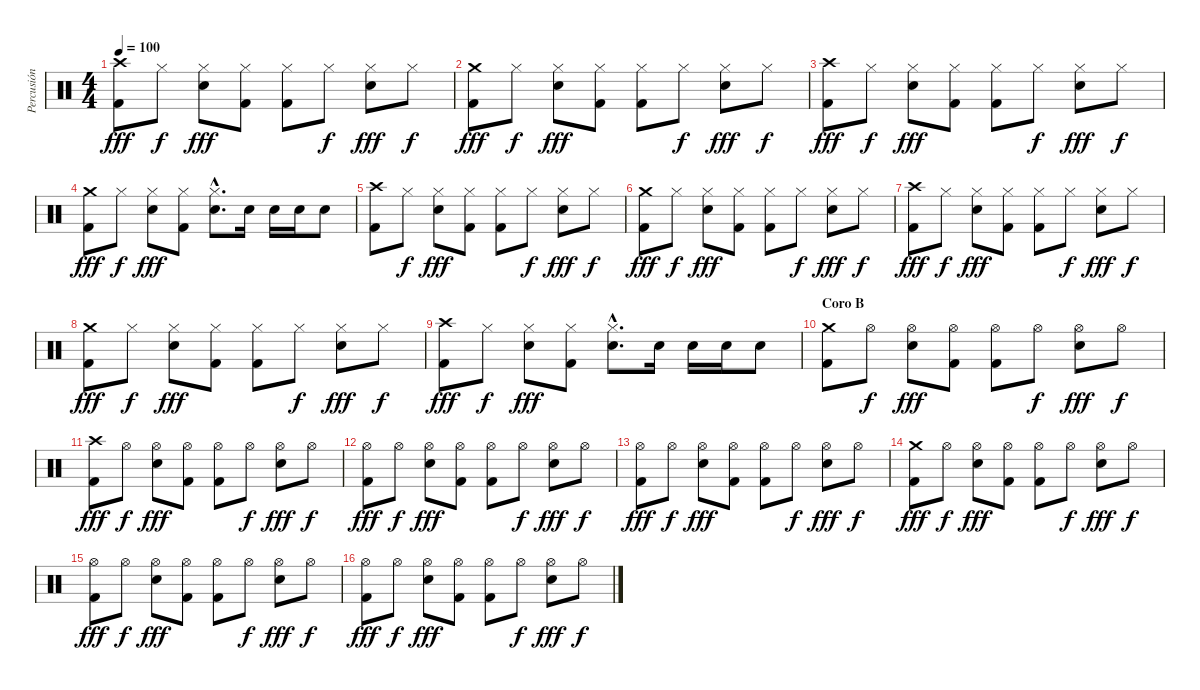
\track ("Percusión" "Percusión") {instrument percussion}
\staff {score}
\articulation defaults
\ts (4 4)
\tempo 100
\clef neutral
\ks c
("Crash high (hit)" "Kick (hit) 2").8{dy fff} "Hi-Hat (closed)".8{dy f} ("Hi-Hat (closed)" "Snare (hit) 2").8{dy fff} ("Hi-Hat (closed)" "Kick (hit) 2").8 ("Hi-Hat (closed)" "Kick (hit) 2").8 "Hi-Hat (closed)".8{dy f} ("Hi-Hat (closed)" "Snare (hit) 2").8{dy fff} "Hi-Hat (closed)".8{dy f} |
("Crash medium (hit)" "Kick (hit) 2").8{dy fff} "Hi-Hat (closed)".8{dy f} ("Hi-Hat (closed)" "Snare (hit) 2").8{dy fff} ("Hi-Hat (closed)" "Kick (hit) 2").8 ("Hi-Hat (closed)" "Kick (hit) 2").8 "Hi-Hat (closed)".8{dy f} ("Hi-Hat (closed)" "Snare (hit) 2").8{dy fff} "Hi-Hat (closed)".8{dy f} |
("Crash high (hit)" "Kick (hit) 2").8{dy fff} "Hi-Hat (closed)".8{dy f} ("Hi-Hat (closed)" "Snare (hit) 2").8{dy fff} ("Hi-Hat (closed)" "Kick (hit) 2").8 ("Hi-Hat (closed)" "Kick (hit) 2").8 "Hi-Hat (closed)".8{dy f} ("Hi-Hat (closed)" "Snare (hit) 2").8{dy fff} "Hi-Hat (closed)".8{dy f} |
("Crash medium (hit)" "Kick (hit) 2").8{dy fff} "Hi-Hat (closed)".8{dy f} ("Hi-Hat (closed)" "Snare (hit) 2").8{dy fff} ("Hi-Hat (closed)" "Kick (hit) 2").8 ("Hi-Hat (closed)"{hac} "Snare (hit) 2"{hac}).8{d} "Snare (hit) 2".16 "Snare (hit) 2".16 "Snare (hit) 2".16 "Snare (hit) 2".8 |
("Crash high (hit)" "Kick (hit) 2").8 "Hi-Hat (closed)".8{dy f} ("Hi-Hat (closed)" "Snare (hit) 2").8{dy fff} ("Hi-Hat (closed)" "Kick (hit) 2").8 ("Hi-Hat (closed)" "Kick (hit) 2").8 "Hi-Hat (closed)".8{dy f} ("Hi-Hat (closed)" "Snare (hit) 2").8{dy fff} "Hi-Hat (closed)".8{dy f} |
("Crash medium (hit)" "Kick (hit) 2").8{dy fff} "Hi-Hat (closed)".8{dy f} ("Hi-Hat (closed)" "Snare (hit) 2").8{dy fff} ("Hi-Hat (closed)" "Kick (hit) 2").8 ("Hi-Hat (closed)" "Kick (hit) 2").8 "Hi-Hat (closed)".8{dy f} ("Hi-Hat (closed)" "Snare (hit) 2").8{dy fff} "Hi-Hat (closed)".8{dy f} |
("Crash high (hit)" "Kick (hit) 2").8{dy fff} "Hi-Hat (closed)".8{dy f} ("Hi-Hat (closed)" "Snare (hit) 2").8{dy fff} ("Hi-Hat (closed)" "Kick (hit) 2").8 ("Hi-Hat (closed)" "Kick (hit) 2").8 "Hi-Hat (closed)".8{dy f} ("Hi-Hat (closed)" "Snare (hit) 2").8{dy fff} "Hi-Hat (closed)".8{dy f} |
("Crash medium (hit)" "Kick (hit) 2").8{dy fff} "Hi-Hat (closed)".8{dy f} ("Hi-Hat (closed)" "Snare (hit) 2").8{dy fff} ("Hi-Hat (closed)" "Kick (hit) 2").8 ("Hi-Hat (closed)" "Kick (hit) 2").8 "Hi-Hat (closed)".8{dy f} ("Hi-Hat (closed)" "Snare (hit) 2").8{dy fff} "Hi-Hat (closed)".8{dy f} |
("Crash high (hit)" "Kick (hit) 2").8{dy fff} "Hi-Hat (closed)".8{dy f} ("Hi-Hat (closed)" "Snare (hit) 2").8{dy fff} ("Hi-Hat (closed)" "Kick (hit) 2").8 ("Hi-Hat (closed)"{hac} "Snare (hit) 2"{hac}).8{d} "Snare (hit) 2".16 "Snare (hit) 2".16 "Snare (hit) 2".16 "Snare (hit) 2".8 |
\section ("" "Coro B")
("Crash medium (hit)" "Kick (hit) 2").8 "Hi-Hat (open)".8{dy f} ("Hi-Hat (open)" "Snare (hit) 2").8{dy fff} ("Hi-Hat (open)" "Kick (hit) 2").8 ("Hi-Hat (open)" "Kick (hit) 2").8 "Hi-Hat (open)".8{dy f} ("Hi-Hat (open)" "Snare (hit) 2").8{dy fff} "Hi-Hat (open)".8{dy f} |
("Crash high (hit)" "Kick (hit) 2").8{dy fff} "Hi-Hat (open)".8{dy f} ("Hi-Hat (open)" "Snare (hit) 2").8{dy fff} ("Hi-Hat (open)" "Kick (hit) 2").8 ("Hi-Hat (open)" "Kick (hit) 2").8 "Hi-Hat (open)".8{dy f} ("Hi-Hat (open)" "Snare (hit) 2").8{dy fff} "Hi-Hat (open)".8{dy f} |
("Hi-Hat (open)" "Kick (hit) 2").8{dy fff} "Hi-Hat (open)".8{dy f} ("Hi-Hat (open)" "Snare (hit) 2").8{dy fff} ("Hi-Hat (open)" "Kick (hit) 2").8 ("Hi-Hat (open)" "Kick (hit) 2").8 "Hi-Hat (open)".8{dy f} ("Hi-Hat (open)" "Snare (hit) 2").8{dy fff} "Hi-Hat (open)".8{dy f} |
("Hi-Hat (open)" "Kick (hit) 2").8{dy fff} "Hi-Hat (open)".8{dy f} ("Hi-Hat (open)" "Snare (hit) 2").8{dy fff} ("Hi-Hat (open)" "Kick (hit) 2").8 ("Hi-Hat (open)" "Kick (hit) 2").8 "Hi-Hat (open)".8{dy f} ("Hi-Hat (open)" "Snare (hit) 2").8{dy fff} "Hi-Hat (open)".8{dy f} |
("Crash medium (hit)" "Kick (hit) 2").8{dy fff} "Hi-Hat (open)".8{dy f} ("Hi-Hat (open)" "Snare (hit) 2").8{dy fff} ("Hi-Hat (open)" "Kick (hit) 2").8 ("Hi-Hat (open)" "Kick (hit) 2").8 "Hi-Hat (open)".8{dy f} ("Hi-Hat (open)" "Snare (hit) 2").8{dy fff} "Hi-Hat (open)".8{dy f} |
("Hi-Hat (open)" "Kick (hit) 2").8{dy fff} "Hi-Hat (open)".8{dy f} ("Hi-Hat (open)" "Snare (hit) 2").8{dy fff} ("Hi-Hat (open)" "Kick (hit) 2").8 ("Hi-Hat (open)" "Kick (hit) 2").8 "Hi-Hat (open)".8{dy f} ("Hi-Hat (open)" "Snare (hit) 2").8{dy fff} "Hi-Hat (open)".8{dy f} |
("Hi-Hat (open)" "Kick (hit) 2").8{dy fff} "Hi-Hat (open)".8{dy f} ("Hi-Hat (open)" "Snare (hit) 2").8{dy fff} ("Hi-Hat (open)" "Kick (hit) 2").8 ("Hi-Hat (open)" "Kick (hit) 2").8 "Hi-Hat (open)".8{dy f} ("Hi-Hat (open)" "Snare (hit) 2").8{dy fff} "Hi-Hat (open)".8{dy f}
